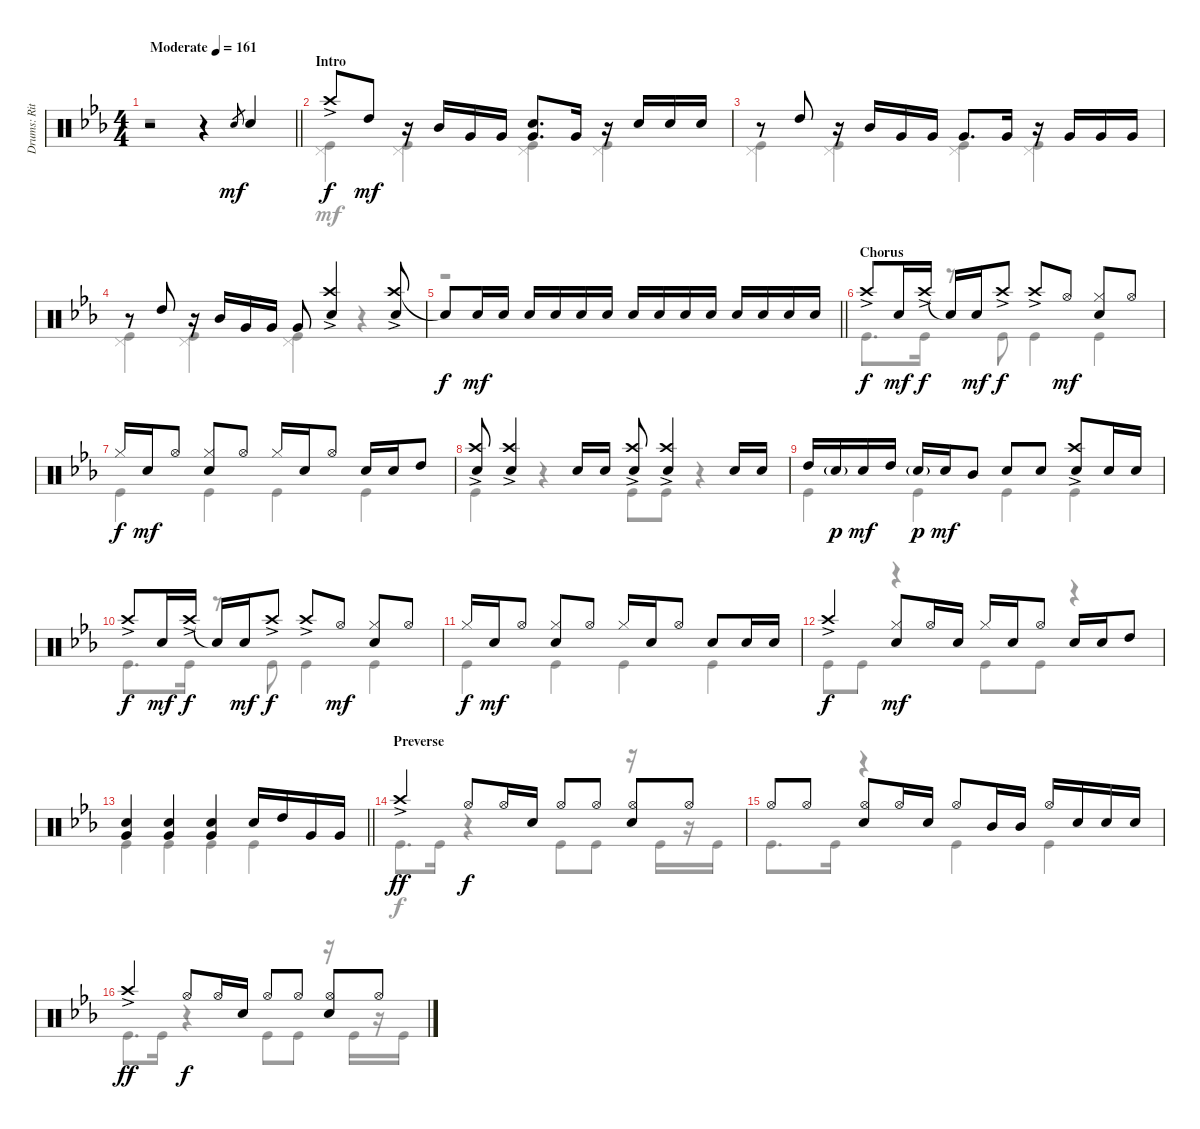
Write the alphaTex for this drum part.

\track ("Drums: Ritsu Tianaka" "Drums: Rit") {instrument percussion}
\staff {score}
\articulation defaults
\voice
\ts (4 4)
\tempo (161 "Moderate")
\clef neutral
\barLineRight lightlight
\ks eb
r.2{dy mf} r.4 "Snare (hit) 2".8{gr} "Snare (hit) 2".4 |
\section ("" "Intro")
"Crash high (hit)"{ac}.8{dy f} "High Tom (hit)".8{dy mf} r.16 "Mid Tom (hit)".16 "Very Low Tom (hit)".16 "Very Low Tom (hit)".16 ("Snare (hit) 2" "Very Low Tom (hit)").8{d} "Very Low Tom (hit)".16 r.16 "Snare (hit) 2".16 "Snare (hit) 2".16 "Snare (hit) 2".16 |
r.8 "High Tom (hit)".8 r.16 "Mid Tom (hit)".16 "Very Low Tom (hit)".16 "Very Low Tom (hit)".16 "Very Low Tom (hit)".8{d} "Very Low Tom (hit)".16 r.16 "Very Low Tom (hit)".16 "Very Low Tom (hit)".16 "Very Low Tom (hit)".16 |
r.8 "High Tom (hit)".8 r.16 "Mid Tom (hit)".16 "Very Low Tom (hit)".16 "Very Low Tom (hit)".16 "Very Low Tom (hit)".8 ("Crash high (hit)"{ac} "Snare (hit) 2").4 ("Crash high (hit)"{ac} "Snare (hit) 2").8 |
\barLineRight lightlight "Snare (hit)"{t}.8{dy f volume 10} "Snare (hit) 2".16{dy mf volume 15} "Snare (hit) 2".16 "Snare (hit) 2".16 "Snare (hit) 2".16 "Snare (hit) 2".16 "Snare (hit) 2".16 "Snare (hit) 2".16 "Snare (hit) 2".16 "Snare (hit) 2".16 "Snare (hit) 2".16 "Snare (hit) 2".16 "Snare (hit) 2".16 "Snare (hit) 2".16 "Snare (hit) 2".16
|
\section ("" "Chorus")
"Crash high (hit)"{ac}.8{dy f} "Snare (hit) 2".16{dy mf} "Crash high (hit)"{ac}.16{dy f} "Snare (hit)"{t}.16 "Snare (hit) 2".16{dy mf} "Crash high (hit)"{ac}.8{dy f} "Crash high (hit)"{ac}.8 "Hi-Hat (open)".8{dy mf} ("Hi-Hat (closed)" "Snare (hit) 2").8 "Hi-Hat (open)".8 |
"Hi-Hat (closed)".16{dy f} "Snare (hit) 2".16{dy mf} "Hi-Hat (open)".8 ("Hi-Hat (closed)" "Snare (hit) 2").8 "Hi-Hat (open)".8 "Hi-Hat (closed)".16 "Snare (hit) 2".16 "Hi-Hat (open)".8 "Snare (hit) 2".16 "Snare (hit) 2".16 "High Tom (hit)".8 |
("Crash high (hit)"{ac} "Snare (hit) 2").8 ("Crash high (hit)"{ac} "Snare (hit) 2").4 "Snare (hit) 2".16 "Snare (hit) 2".16 ("Crash high (hit)"{ac} "Snare (hit) 2").8 ("Crash high (hit)"{ac} "Snare (hit) 2").4 "Snare (hit) 2".16 "Snare (hit) 2".16 |
"High Tom (hit)".16 "Snare (hit) 2"{g}.16{dy p} "Snare (hit) 2".16{dy mf} "High Tom (hit)".16 "Snare (hit) 2"{g}.16{dy p} "Snare (hit) 2".16{dy mf} "Mid Tom (hit)".8 "Snare (hit) 2".8 "Snare (hit) 2".8 ("Crash high (hit)"{ac} "Snare (hit) 2").8 "Snare (hit) 2".16 "Snare (hit) 2".16 |
"Crash high (hit)"{ac}.8{dy f} "Snare (hit) 2".16{dy mf} "Crash high (hit)"{ac}.16{dy f} "Snare (hit)"{t}.16 "Snare (hit) 2".16{dy mf} "Crash high (hit)"{ac}.8{dy f} "Crash high (hit)"{ac}.8 "Hi-Hat (open)".8{dy mf} ("Hi-Hat (closed)" "Snare (hit) 2").8 "Hi-Hat (open)".8 |
"Hi-Hat (closed)".16{dy f} "Snare (hit) 2".16{dy mf} "Hi-Hat (open)".8 ("Hi-Hat (closed)" "Snare (hit) 2").8 "Hi-Hat (open)".8 "Hi-Hat (closed)".16 "Snare (hit) 2".16 "Hi-Hat (open)".8 "Snare (hit) 2".8 "Snare (hit) 2".16 "Snare (hit) 2".16 |
"Crash high (hit)"{ac}.4{dy f} ("Hi-Hat (closed)" "Snare (hit) 2").8{dy mf} "Hi-Hat (open)".16 "Snare (hit) 2".16 "Hi-Hat (closed)".16 "Snare (hit) 2".16 "Hi-Hat (open)".8 "Snare (hit) 2".16 "Snare (hit) 2".16 "High Tom (hit)".8 |
\barLineRight lightlight
("Snare (hit) 2" "Very Low Tom (hit)").4 ("Snare (hit) 2" "Very Low Tom (hit)").4 ("Snare (hit) 2" "Very Low Tom (hit)").4 "Snare (hit) 2".16 "High Tom (hit)".16 "Very Low Tom (hit)".16 "Very Low Tom (hit)".16 |
\section ("" "Preverse")
"Crash high (hit)"{ac}.4{dy ff} "Hi-Hat (open)".8{dy f} "Hi-Hat (open)".16 "Snare (hit) 2".16 "Hi-Hat (open)".8 "Hi-Hat (open)".8 ("Hi-Hat (open)" "Snare (hit) 2").8 "Hi-Hat (open)".8 |
"Hi-Hat (open)".8 "Hi-Hat (open)".8 ("Hi-Hat (open)" "Snare (hit) 2").8 "Hi-Hat (open)".16 "Snare (hit) 2".16 "Hi-Hat (open)".8 "Mid Tom (hit)".16 "Mid Tom (hit)".16 "Hi-Hat (open)".16 "Snare (hit) 2".16 "Snare (hit) 2".16 "Snare (hit) 2".16 |
"Crash high (hit)"{ac}.4{dy ff} "Hi-Hat (open)".8{dy f} "Hi-Hat (open)".16 "Snare (hit) 2".16 "Hi-Hat (open)".8 "Hi-Hat (open)".8 ("Hi-Hat (open)" "Snare (hit) 2").8 "Hi-Hat (open)".8
\voice
\clef neutral
\ottava regular
\simile none
\barLineRight lightlight
\ks eb
r.1{dy mf} |
("Pedal Hi-Hat (hit)" "Kick (hit)").4 ("Pedal Hi-Hat (hit)" "Kick (hit)").4 ("Pedal Hi-Hat (hit)" "Kick (hit)").4 ("Pedal Hi-Hat (hit)" "Kick (hit)").4 |
("Pedal Hi-Hat (hit)" "Kick (hit)").4 ("Pedal Hi-Hat (hit)" "Kick (hit)").4 ("Pedal Hi-Hat (hit)" "Kick (hit)").4 ("Pedal Hi-Hat (hit)" "Kick (hit)").4 |
("Pedal Hi-Hat (hit)" "Kick (hit)").4 ("Pedal Hi-Hat (hit)" "Kick (hit)").4 ("Pedal Hi-Hat (hit)" "Kick (hit)").4 r.4 |
\barLineRight lightlight
r.1 |
"Kick (hit)".8{d} "Kick (hit)".16 r.8 "Kick (hit)".8 "Kick (hit)".4 "Kick (hit)".4 |
"Kick (hit)".4 "Kick (hit)".4 "Kick (hit)".4 "Kick (hit)".4 |
"Kick (hit)".4 r.4 "Kick (hit)".8 "Kick (hit)".8 r.4 |
"Kick (hit)".4 "Kick (hit)".4 "Kick (hit)".4 "Kick (hit)".4 |
"Kick (hit)".8{d} "Kick (hit)".16 r.8 "Kick (hit)".8 "Kick (hit)".4 "Kick (hit)".4 |
"Kick (hit)".4 "Kick (hit)".4 "Kick (hit)".4 "Kick (hit)".4 |
"Kick (hit)".8 "Kick (hit)".8 r.4 "Kick (hit)".8 "Kick (hit)".8 r.4 |
\barLineRight lightlight "Kick (hit)".4 "Kick (hit)".4 "Kick (hit)".4 "Kick (hit)".4
|
"Kick (hit)".8{d dy f} "Kick (hit)".16 r.4 "Kick (hit)".8 "Kick (hit)".8 r.16 "Kick (hit)".16 r.16 "Kick (hit)".16 |
"Kick (hit)".8{d} "Kick (hit)".16 r.4 "Kick (hit)".4 "Kick (hit)".4 |
"Kick (hit)".8{d} "Kick (hit)".16 r.4 "Kick (hit)".8 "Kick (hit)".8 r.16 "Kick (hit)".16 r.16 "Kick (hit)".16
